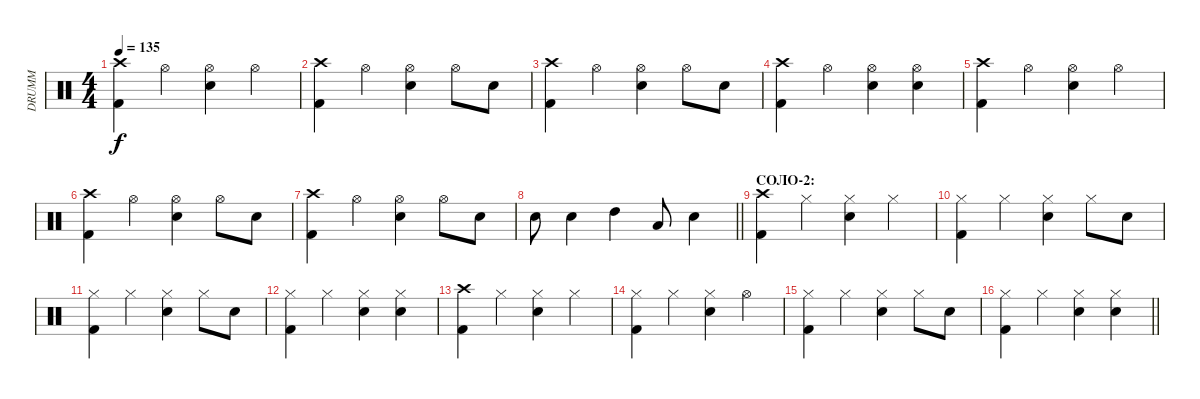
\track ("DRUMM" "DRUMM") {instrument percussion}
\staff {score}
\articulation defaults
\ts (4 4)
\tempo 135
\clef neutral
\ks c
("Crash high (hit)" "Kick (hit) 2").4{dy f} "Hi-Hat (open)".4 ("Hi-Hat (open)" "Electric Snare (hit)").4 "Hi-Hat (open)".4 |
("Crash high (hit)" "Kick (hit) 2").4 "Hi-Hat (open)".4 ("Hi-Hat (open)" "Electric Snare (hit)").4 "Hi-Hat (open)".8 "Electric Snare (hit)".8 |
("Crash high (hit)" "Kick (hit) 2").4 "Hi-Hat (open)".4 ("Hi-Hat (open)" "Electric Snare (hit)").4 "Hi-Hat (open)".8 "Electric Snare (hit)".8 |
("Crash high (hit)" "Kick (hit) 2").4 "Hi-Hat (open)".4 ("Hi-Hat (open)" "Electric Snare (hit)").4 ("Electric Snare (hit)" "Hi-Hat (open)").4 |
("Crash high (hit)" "Kick (hit) 2").4 "Hi-Hat (open)".4 ("Hi-Hat (open)" "Electric Snare (hit)").4 "Hi-Hat (open)".4 |
("Crash high (hit)" "Kick (hit) 2").4 "Hi-Hat (open)".4 ("Hi-Hat (open)" "Electric Snare (hit)").4 "Hi-Hat (open)".8 "Electric Snare (hit)".8 |
("Crash high (hit)" "Kick (hit) 2").4 "Hi-Hat (open)".4 ("Hi-Hat (open)" "Electric Snare (hit)").4 "Hi-Hat (open)".8 "Electric Snare (hit)".8 |
\barLineRight lightlight "Electric Snare (hit)".8 "Electric Snare (hit)".4 "High Tom (hit)".4 "Low Tom (hit)".8 "Electric Snare (hit)".4
|
\section ("" "СОЛО-2:")
("Crash high (hit)" "Kick (hit) 2").4 "Hi-Hat (closed)".4 ("Electric Snare (hit)" "Hi-Hat (closed)").4 "Hi-Hat (closed)".4 |
("Hi-Hat (closed)" "Kick (hit) 2").4 "Hi-Hat (closed)".4 ("Hi-Hat (closed)" "Electric Snare (hit)").4 "Hi-Hat (closed)".8 "Electric Snare (hit)".8 |
("Hi-Hat (closed)" "Kick (hit) 2").4 "Hi-Hat (closed)".4 ("Hi-Hat (closed)" "Electric Snare (hit)").4 "Hi-Hat (closed)".8 "Electric Snare (hit)".8 |
("Hi-Hat (closed)" "Kick (hit) 2").4 "Hi-Hat (closed)".4 ("Hi-Hat (closed)" "Electric Snare (hit)").4 ("Hi-Hat (closed)" "Electric Snare (hit)").4 |
("Crash high (hit)" "Kick (hit) 2").4 "Hi-Hat (closed)".4 ("Electric Snare (hit)" "Hi-Hat (closed)").4 "Hi-Hat (closed)".4 |
("Hi-Hat (closed)" "Kick (hit) 2").4 "Hi-Hat (closed)".4 ("Hi-Hat (closed)" "Electric Snare (hit)").4 "Hi-Hat (open)".4 |
("Hi-Hat (closed)" "Kick (hit) 2").4 "Hi-Hat (closed)".4 ("Hi-Hat (closed)" "Electric Snare (hit)").4 "Hi-Hat (closed)".8 "Electric Snare (hit)".8 |
\barLineRight lightlight
("Hi-Hat (closed)" "Kick (hit) 2").4 "Hi-Hat (closed)".4 ("Hi-Hat (closed)" "Electric Snare (hit)").4 ("Hi-Hat (closed)" "Electric Snare (hit)").4
